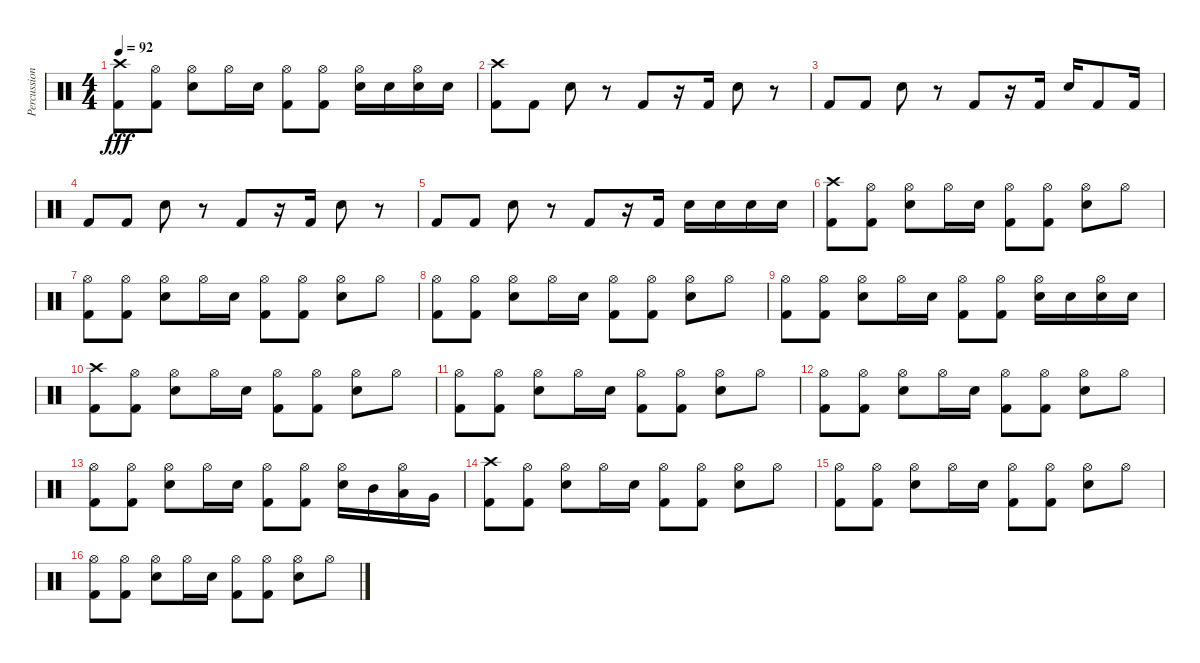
\track ("Percussions" "Percussion") {instrument percussion}
\staff {score}
\articulation defaults
\ts (4 4)
\tempo 92
\clef neutral
\ks c
("Kick (hit) 2" "Crash high (hit)").8{dy fff} ("Kick (hit) 2" "Hi-Hat (open)").8 ("Snare (hit) 2" "Hi-Hat (open)").8 "Hi-Hat (open)".16 "Snare (hit) 2".16 ("Kick (hit) 2" "Hi-Hat (open)").8 ("Kick (hit) 2" "Hi-Hat (open)").8 ("Snare (hit) 2" "Hi-Hat (open)").16 "Snare (hit) 2".16 ("Snare (hit) 2" "Hi-Hat (open)").16 "Snare (hit) 2".16 |
("Kick (hit) 2" "Crash high (hit)").8 "Kick (hit) 2".8 "Snare (hit) 2".8 r.8 "Kick (hit) 2".8 r.16 "Kick (hit) 2".16 "Snare (hit) 2".8 r.8 |
"Kick (hit) 2".8 "Kick (hit) 2".8 "Snare (hit) 2".8 r.8 "Kick (hit) 2".8 r.16 "Kick (hit) 2".16 "Snare (hit) 2".16 "Kick (hit) 2".8 "Kick (hit) 2".16 |
"Kick (hit) 2".8 "Kick (hit) 2".8 "Snare (hit) 2".8 r.8 "Kick (hit) 2".8 r.16 "Kick (hit) 2".16 "Snare (hit) 2".8 r.8 |
"Kick (hit) 2".8 "Kick (hit) 2".8 "Snare (hit) 2".8 r.8 "Kick (hit) 2".8 r.16 "Kick (hit) 2".16 "Snare (hit) 2".16 "Snare (hit) 2".16 "Snare (hit) 2".16 "Snare (hit) 2".16 |
("Kick (hit) 2" "Crash high (hit)").8 ("Kick (hit) 2" "Hi-Hat (open)").8 ("Snare (hit) 2" "Hi-Hat (open)").8 "Hi-Hat (open)".16 "Snare (hit) 2".16 ("Kick (hit) 2" "Hi-Hat (open)").8 ("Kick (hit) 2" "Hi-Hat (open)").8 ("Snare (hit) 2" "Hi-Hat (open)").8 "Hi-Hat (open)".8 |
("Kick (hit) 2" "Hi-Hat (open)").8 ("Kick (hit) 2" "Hi-Hat (open)").8 ("Snare (hit) 2" "Hi-Hat (open)").8 "Hi-Hat (open)".16 "Snare (hit) 2".16 ("Kick (hit) 2" "Hi-Hat (open)").8 ("Kick (hit) 2" "Hi-Hat (open)").8 ("Snare (hit) 2" "Hi-Hat (open)").8 "Hi-Hat (open)".8 |
("Kick (hit) 2" "Hi-Hat (open)").8 ("Kick (hit) 2" "Hi-Hat (open)").8 ("Snare (hit) 2" "Hi-Hat (open)").8 "Hi-Hat (open)".16 "Snare (hit) 2".16 ("Kick (hit) 2" "Hi-Hat (open)").8 ("Kick (hit) 2" "Hi-Hat (open)").8 ("Snare (hit) 2" "Hi-Hat (open)").8 "Hi-Hat (open)".8 |
("Kick (hit) 2" "Hi-Hat (open)").8 ("Kick (hit) 2" "Hi-Hat (open)").8 ("Snare (hit) 2" "Hi-Hat (open)").8 "Hi-Hat (open)".16 "Snare (hit) 2".16 ("Kick (hit) 2" "Hi-Hat (open)").8 ("Kick (hit) 2" "Hi-Hat (open)").8 ("Snare (hit) 2" "Hi-Hat (open)").16 "Snare (hit) 2".16 ("Snare (hit) 2" "Hi-Hat (open)").16 "Snare (hit) 2".16 |
("Kick (hit) 2" "Crash high (hit)").8 ("Kick (hit) 2" "Hi-Hat (open)").8 ("Snare (hit) 2" "Hi-Hat (open)").8 "Hi-Hat (open)".16 "Snare (hit) 2".16 ("Kick (hit) 2" "Hi-Hat (open)").8 ("Kick (hit) 2" "Hi-Hat (open)").8 ("Snare (hit) 2" "Hi-Hat (open)").8 "Hi-Hat (open)".8 |
("Kick (hit) 2" "Hi-Hat (open)").8 ("Kick (hit) 2" "Hi-Hat (open)").8 ("Snare (hit) 2" "Hi-Hat (open)").8 "Hi-Hat (open)".16 "Snare (hit) 2".16 ("Kick (hit) 2" "Hi-Hat (open)").8 ("Kick (hit) 2" "Hi-Hat (open)").8 ("Snare (hit) 2" "Hi-Hat (open)").8 "Hi-Hat (open)".8 |
("Kick (hit) 2" "Hi-Hat (open)").8 ("Kick (hit) 2" "Hi-Hat (open)").8 ("Snare (hit) 2" "Hi-Hat (open)").8 "Hi-Hat (open)".16 "Snare (hit) 2".16 ("Kick (hit) 2" "Hi-Hat (open)").8 ("Kick (hit) 2" "Hi-Hat (open)").8 ("Snare (hit) 2" "Hi-Hat (open)").8 "Hi-Hat (open)".8 |
("Kick (hit) 2" "Hi-Hat (open)").8 ("Kick (hit) 2" "Hi-Hat (open)").8 ("Snare (hit) 2" "Hi-Hat (open)").8 "Hi-Hat (open)".16 "Snare (hit) 2".16 ("Kick (hit) 2" "Hi-Hat (open)").8 ("Kick (hit) 2" "Hi-Hat (open)").8 ("Snare (hit) 2" "Hi-Hat (open)").16 "Mid Tom (hit)".16 ("Low Tom (hit)" "Hi-Hat (open)").16 "Very Low Tom (hit)".16 |
("Kick (hit) 2" "Crash high (hit)").8 ("Kick (hit) 2" "Hi-Hat (open)").8 ("Snare (hit) 2" "Hi-Hat (open)").8 "Hi-Hat (open)".16 "Snare (hit) 2".16 ("Kick (hit) 2" "Hi-Hat (open)").8 ("Kick (hit) 2" "Hi-Hat (open)").8 ("Snare (hit) 2" "Hi-Hat (open)").8 "Hi-Hat (open)".8 |
("Kick (hit) 2" "Hi-Hat (open)").8 ("Kick (hit) 2" "Hi-Hat (open)").8 ("Snare (hit) 2" "Hi-Hat (open)").8 "Hi-Hat (open)".16 "Snare (hit) 2".16 ("Kick (hit) 2" "Hi-Hat (open)").8 ("Kick (hit) 2" "Hi-Hat (open)").8 ("Snare (hit) 2" "Hi-Hat (open)").8 "Hi-Hat (open)".8 |
("Kick (hit) 2" "Hi-Hat (open)").8 ("Kick (hit) 2" "Hi-Hat (open)").8 ("Snare (hit) 2" "Hi-Hat (open)").8 "Hi-Hat (open)".16 "Snare (hit) 2".16 ("Kick (hit) 2" "Hi-Hat (open)").8 ("Kick (hit) 2" "Hi-Hat (open)").8 ("Snare (hit) 2" "Hi-Hat (open)").8 "Hi-Hat (open)".8
